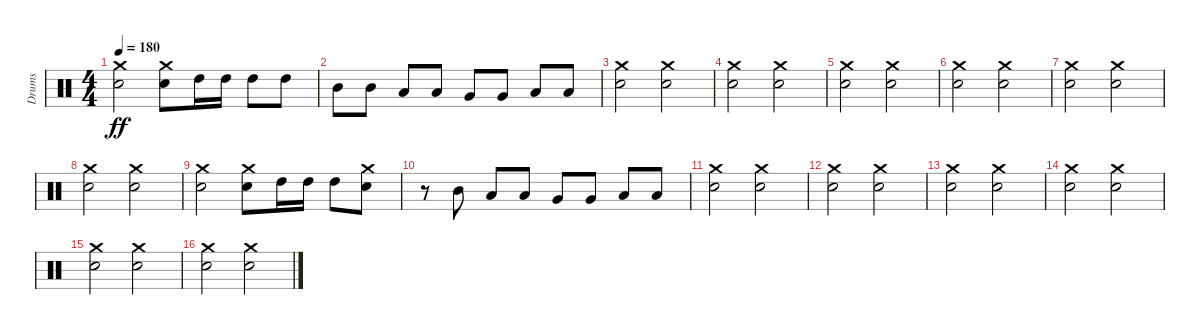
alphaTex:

\track ("Drums" "Drums") {instrument percussion}
\staff {score}
\articulation defaults
\ts (4 4)
\tempo 180
\clef neutral
\ks c
("Crash medium (hit)" "Electric Snare (hit)").2{dy ff} ("Crash medium (hit)" "Electric Snare (hit)").8 "High Tom (hit)".16 "High Tom (hit)".16 "High Tom (hit)".8 "High Tom (hit)".8 |
"Mid Tom (hit)".8 "Mid Tom (hit)".8 "Low Tom (hit)".8 "Low Tom (hit)".8 "Very Low Tom (hit)".8 "Very Low Tom (hit)".8 "Low Floor Tom (hit)".8 "Low Floor Tom (hit)".8 |
("Crash medium (hit)" "Electric Snare (hit)").2 ("Crash medium (hit)" "Electric Snare (hit)").2 |
("Crash medium (hit)" "Electric Snare (hit)").2 ("Crash medium (hit)" "Electric Snare (hit)").2 |
("Crash medium (hit)" "Electric Snare (hit)").2 ("Crash medium (hit)" "Electric Snare (hit)").2 |
("Crash medium (hit)" "Electric Snare (hit)").2 ("Crash medium (hit)" "Electric Snare (hit)").2 |
("Crash medium (hit)" "Electric Snare (hit)").2 ("Crash medium (hit)" "Electric Snare (hit)").2 |
("Crash medium (hit)" "Electric Snare (hit)").2 ("Crash medium (hit)" "Electric Snare (hit)").2 |
("Crash medium (hit)" "Electric Snare (hit)").2 ("Crash medium (hit)" "Electric Snare (hit)").8 "High Tom (hit)".16 "High Tom (hit)".16 "High Tom (hit)".8 ("Crash medium (hit)" "Electric Snare (hit)").8 |
r.8 "Mid Tom (hit)".8 "Low Tom (hit)".8 "Low Tom (hit)".8 "Very Low Tom (hit)".8 "Very Low Tom (hit)".8 "Low Floor Tom (hit)".8 "Low Floor Tom (hit)".8 |
("Crash medium (hit)" "Electric Snare (hit)").2 ("Crash medium (hit)" "Electric Snare (hit)").2 |
("Crash medium (hit)" "Electric Snare (hit)").2 ("Crash medium (hit)" "Electric Snare (hit)").2 |
("Crash medium (hit)" "Electric Snare (hit)").2 ("Crash medium (hit)" "Electric Snare (hit)").2 |
("Crash medium (hit)" "Electric Snare (hit)").2 ("Crash medium (hit)" "Electric Snare (hit)").2 |
("Crash medium (hit)" "Electric Snare (hit)").2 ("Crash medium (hit)" "Electric Snare (hit)").2 |
("Crash medium (hit)" "Electric Snare (hit)").2 ("Crash medium (hit)" "Electric Snare (hit)").2
